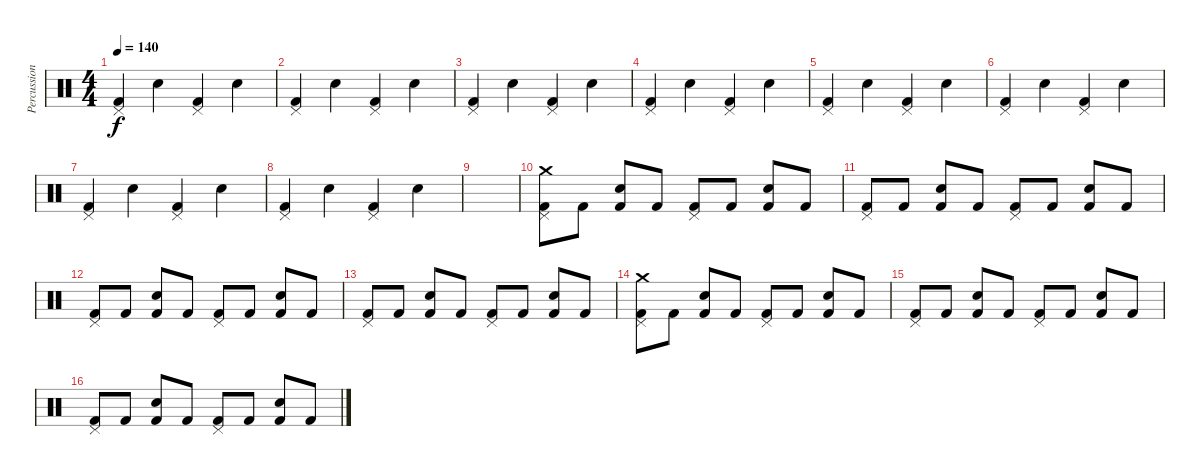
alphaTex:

\track ("Percussion" "Percussion") {instrument percussion}
\staff {score}
\articulation defaults
\ts (4 4)
\tempo 140
\clef neutral
\ks c
("Kick (hit) 2" "Pedal Hi-Hat (hit)").4{dy f} "Electric Snare (hit)".4 ("Kick (hit) 2" "Pedal Hi-Hat (hit)").4 "Electric Snare (hit)".4 |
("Kick (hit) 2" "Pedal Hi-Hat (hit)").4 "Electric Snare (hit)".4 ("Kick (hit) 2" "Pedal Hi-Hat (hit)").4 "Electric Snare (hit)".4 |
("Kick (hit) 2" "Pedal Hi-Hat (hit)").4 "Electric Snare (hit)".4 ("Kick (hit) 2" "Pedal Hi-Hat (hit)").4 "Electric Snare (hit)".4 |
("Kick (hit) 2" "Pedal Hi-Hat (hit)").4 "Electric Snare (hit)".4 ("Kick (hit) 2" "Pedal Hi-Hat (hit)").4 "Electric Snare (hit)".4 |
("Kick (hit) 2" "Pedal Hi-Hat (hit)").4 "Electric Snare (hit)".4 ("Kick (hit) 2" "Pedal Hi-Hat (hit)").4 "Electric Snare (hit)".4 |
("Kick (hit) 2" "Pedal Hi-Hat (hit)").4 "Electric Snare (hit)".4 ("Kick (hit) 2" "Pedal Hi-Hat (hit)").4 "Electric Snare (hit)".4 |
("Kick (hit) 2" "Pedal Hi-Hat (hit)").4 "Electric Snare (hit)".4 ("Kick (hit) 2" "Pedal Hi-Hat (hit)").4 "Electric Snare (hit)".4 |
("Kick (hit) 2" "Pedal Hi-Hat (hit)").4 "Electric Snare (hit)".4 ("Kick (hit) 2" "Pedal Hi-Hat (hit)").4 "Electric Snare (hit)".4 |
|
("Kick (hit) 2" "Pedal Hi-Hat (hit)" "Crash medium (hit)").8 "Kick (hit) 2".8 ("Kick (hit) 2" "Electric Snare (hit)").8 "Kick (hit) 2".8 ("Kick (hit) 2" "Pedal Hi-Hat (hit)").8 "Kick (hit) 2".8 ("Kick (hit) 2" "Electric Snare (hit)").8 "Kick (hit) 2".8 |
("Kick (hit) 2" "Pedal Hi-Hat (hit)").8 "Kick (hit) 2".8 ("Kick (hit) 2" "Electric Snare (hit)").8 "Kick (hit) 2".8 ("Kick (hit) 2" "Pedal Hi-Hat (hit)").8 "Kick (hit) 2".8 ("Kick (hit) 2" "Electric Snare (hit)").8 "Kick (hit) 2".8 |
("Kick (hit) 2" "Pedal Hi-Hat (hit)").8 "Kick (hit) 2".8 ("Kick (hit) 2" "Electric Snare (hit)").8 "Kick (hit) 2".8 ("Kick (hit) 2" "Pedal Hi-Hat (hit)").8 "Kick (hit) 2".8 ("Kick (hit) 2" "Electric Snare (hit)").8 "Kick (hit) 2".8 |
("Kick (hit) 2" "Pedal Hi-Hat (hit)").8 "Kick (hit) 2".8 ("Kick (hit) 2" "Electric Snare (hit)").8 "Kick (hit) 2".8 ("Kick (hit) 2" "Pedal Hi-Hat (hit)").8 "Kick (hit) 2".8 ("Kick (hit) 2" "Electric Snare (hit)").8 "Kick (hit) 2".8 |
("Kick (hit) 2" "Pedal Hi-Hat (hit)" "Crash medium (hit)").8 "Kick (hit) 2".8 ("Kick (hit) 2" "Electric Snare (hit)").8 "Kick (hit) 2".8 ("Kick (hit) 2" "Pedal Hi-Hat (hit)").8 "Kick (hit) 2".8 ("Kick (hit) 2" "Electric Snare (hit)").8 "Kick (hit) 2".8 |
("Kick (hit) 2" "Pedal Hi-Hat (hit)").8 "Kick (hit) 2".8 ("Kick (hit) 2" "Electric Snare (hit)").8 "Kick (hit) 2".8 ("Kick (hit) 2" "Pedal Hi-Hat (hit)").8 "Kick (hit) 2".8 ("Kick (hit) 2" "Electric Snare (hit)").8 "Kick (hit) 2".8 |
("Kick (hit) 2" "Pedal Hi-Hat (hit)").8 "Kick (hit) 2".8 ("Kick (hit) 2" "Electric Snare (hit)").8 "Kick (hit) 2".8 ("Kick (hit) 2" "Pedal Hi-Hat (hit)").8 "Kick (hit) 2".8 ("Kick (hit) 2" "Electric Snare (hit)").8 "Kick (hit) 2".8
